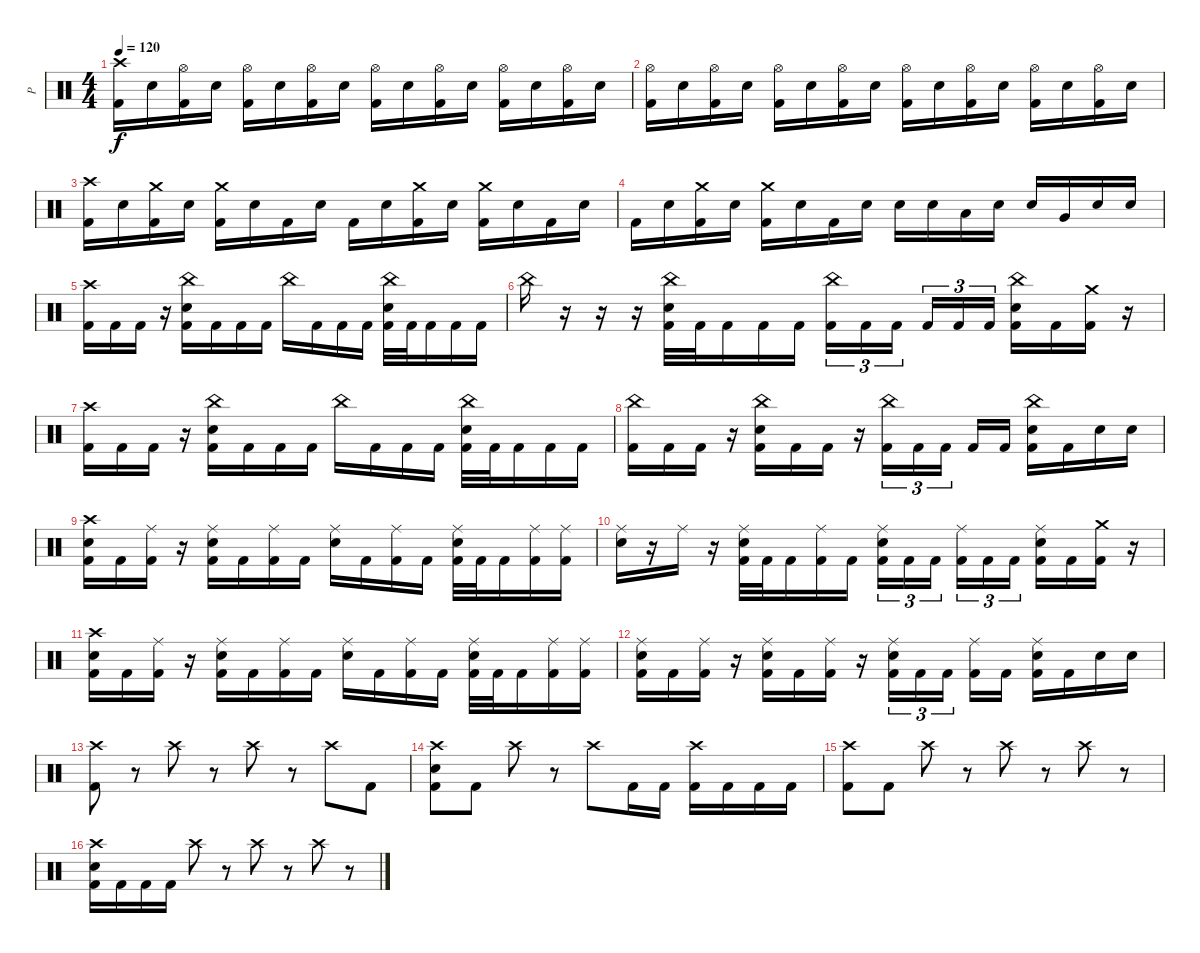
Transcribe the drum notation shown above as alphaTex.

\track ("P" "P") {instrument percussion}
\staff {score}
\articulation defaults
\ts (4 4)
\tempo 120
\clef neutral
\ks c
("Crash high (hit)" "Kick (hit) 2").16{dy f} "Electric Snare (hit)".16 ("Hi-Hat (open)" "Kick (hit) 2").16 "Electric Snare (hit)".16 ("Hi-Hat (open)" "Kick (hit) 2").16 "Electric Snare (hit)".16 ("Hi-Hat (open)" "Kick (hit) 2").16 "Electric Snare (hit)".16 ("Hi-Hat (open)" "Kick (hit) 2").16 "Electric Snare (hit)".16 ("Hi-Hat (open)" "Kick (hit) 2").16 "Electric Snare (hit)".16 ("Hi-Hat (open)" "Kick (hit) 2").16 "Electric Snare (hit)".16 ("Hi-Hat (open)" "Kick (hit) 2").16 "Electric Snare (hit)".16 |
("Hi-Hat (open)" "Kick (hit) 2").16 "Electric Snare (hit)".16 ("Hi-Hat (open)" "Kick (hit) 2").16 "Electric Snare (hit)".16 ("Hi-Hat (open)" "Kick (hit) 2").16 "Electric Snare (hit)".16 ("Hi-Hat (open)" "Kick (hit) 2").16 "Electric Snare (hit)".16 ("Hi-Hat (open)" "Kick (hit) 2").16 "Electric Snare (hit)".16 ("Hi-Hat (open)" "Kick (hit) 2").16 "Electric Snare (hit)".16 ("Hi-Hat (open)" "Kick (hit) 2").16 "Electric Snare (hit)".16 ("Hi-Hat (open)" "Kick (hit) 2").16 "Electric Snare (hit)".16 |
("Crash high (hit)" "Kick (hit) 2").16 "Electric Snare (hit)".16 ("Crash medium (hit)" "Kick (hit) 2").16 "Electric Snare (hit)".16 ("Crash medium (hit)" "Kick (hit) 2").16 "Electric Snare (hit)".16 "Kick (hit) 2".16 "Electric Snare (hit)".16 "Kick (hit) 2".16 "Electric Snare (hit)".16 ("Crash medium (hit)" "Kick (hit) 2").16 "Electric Snare (hit)".16 ("Crash medium (hit)" "Kick (hit) 2").16 "Electric Snare (hit)".16 "Kick (hit) 2".16 "Electric Snare (hit)".16 |
"Kick (hit) 2".16 "Electric Snare (hit)".16 ("Crash medium (hit)" "Kick (hit) 2").16 "Electric Snare (hit)".16 ("Crash medium (hit)" "Kick (hit) 2").16 "Electric Snare (hit)".16 "Kick (hit) 2".16 "Electric Snare (hit)".16 "Electric Snare (hit)".16 "Electric Snare (hit)".16 "Low Tom (hit)".16 "Electric Snare (hit)".16 "Electric Snare (hit)".16 "Very Low Tom (hit)".16 "Electric Snare (hit)".16 "Electric Snare (hit)".16 |
("Crash high (hit)" "Kick (hit) 2").16 "Kick (hit) 2".16 "Kick (hit) 2".16 r.16 ("China (hit)" "Electric Snare (hit)" "Kick (hit) 2").16 "Kick (hit) 2".16 "Kick (hit) 2".16 "Kick (hit) 2".16 "China (hit)".16 "Kick (hit) 2".16 "Kick (hit) 2".16 "Kick (hit) 2".16 ("China (hit)" "Electric Snare (hit)" "Kick (hit) 2").32 "Kick (hit) 2".32 "Kick (hit) 2".16 "Kick (hit) 2".16 "Kick (hit) 2".16 |
"China (hit)".16 r.16 r.16 r.16 ("China (hit)" "Electric Snare (hit)" "Kick (hit) 2").32 "Kick (hit) 2".32 "Kick (hit) 2".16 "Kick (hit) 2".16 "Kick (hit) 2".16 ("China (hit)" "Kick (hit) 2").16{tu (3 2)} "Kick (hit) 2".16{tu (3 2)} "Kick (hit) 2".16{tu (3 2) beam splitsecondary} "Kick (hit) 2".16{tu (3 2)} "Kick (hit) 2".16{tu (3 2)} "Kick (hit) 2".16{tu (3 2)} ("China (hit)" "Electric Snare (hit)" "Kick (hit) 2").16 "Kick (hit) 2".16 ("Crash medium (hit)" "Kick (hit) 2").16 r.16 |
("Crash high (hit)" "Kick (hit) 2").16 "Kick (hit) 2".16 "Kick (hit) 2".16 r.16 ("China (hit)" "Electric Snare (hit)" "Kick (hit) 2").16 "Kick (hit) 2".16 "Kick (hit) 2".16 "Kick (hit) 2".16 "China (hit)".16 "Kick (hit) 2".16 "Kick (hit) 2".16 "Kick (hit) 2".16 ("China (hit)" "Electric Snare (hit)" "Kick (hit) 2").32 "Kick (hit) 2".32 "Kick (hit) 2".16 "Kick (hit) 2".16 "Kick (hit) 2".16 |
("China (hit)" "Kick (hit) 2").16 "Kick (hit) 2".16 "Kick (hit) 2".16 r.16 ("China (hit)" "Electric Snare (hit)" "Kick (hit) 2").16 "Kick (hit) 2".16 "Kick (hit) 2".16 r.16 ("China (hit)" "Kick (hit) 2").16{tu (3 2)} "Kick (hit) 2".16{tu (3 2)} "Kick (hit) 2".16{tu (3 2) beam splitsecondary} "Kick (hit) 2".16 "Kick (hit) 2".16 ("China (hit)" "Electric Snare (hit)" "Kick (hit) 2").16 "Kick (hit) 2".16 "Electric Snare (hit)".16 "Electric Snare (hit)".16 |
("Crash high (hit)" "Electric Snare (hit)" "Kick (hit) 2").16 "Kick (hit) 2".16 ("Ride (middle)" "Kick (hit) 2").16 r.16 ("Ride (middle)" "Electric Snare (hit)" "Kick (hit) 2").16 "Kick (hit) 2".16 ("Ride (middle)" "Kick (hit) 2").16 "Kick (hit) 2".16 ("Ride (middle)" "Electric Snare (hit)").16 "Kick (hit) 2".16 ("Ride (middle)" "Kick (hit) 2").16 "Kick (hit) 2".16 ("Ride (middle)" "Electric Snare (hit)" "Kick (hit) 2").32 "Kick (hit) 2".32 "Kick (hit) 2".16 ("Ride (middle)" "Kick (hit) 2").16 ("Ride (middle)" "Kick (hit) 2").16 |
("Ride (middle)" "Electric Snare (hit)").16 r.16 "Ride (middle)".16 r.16 ("Ride (middle)" "Electric Snare (hit)" "Kick (hit) 2").32 "Kick (hit) 2".32 "Kick (hit) 2".16 ("Ride (middle)" "Kick (hit) 2").16 "Kick (hit) 2".16 ("Ride (middle)" "Electric Snare (hit)" "Kick (hit) 2").16{tu (3 2)} "Kick (hit) 2".16{tu (3 2)} "Kick (hit) 2".16{tu (3 2) beam splitsecondary} ("Ride (middle)" "Kick (hit) 2").16{tu (3 2)} "Kick (hit) 2".16{tu (3 2)} "Kick (hit) 2".16{tu (3 2)} ("Ride (middle)" "Electric Snare (hit)" "Kick (hit) 2").16 "Kick (hit) 2".16 ("Crash medium (hit)" "Kick (hit) 2").16 r.16 |
("Crash high (hit)" "Electric Snare (hit)" "Kick (hit) 2").16 "Kick (hit) 2".16 ("Ride (middle)" "Kick (hit) 2").16 r.16 ("Ride (middle)" "Electric Snare (hit)" "Kick (hit) 2").16 "Kick (hit) 2".16 ("Ride (middle)" "Kick (hit) 2").16 "Kick (hit) 2".16 ("Ride (middle)" "Electric Snare (hit)").16 "Kick (hit) 2".16 ("Ride (middle)" "Kick (hit) 2").16 "Kick (hit) 2".16 ("Ride (middle)" "Electric Snare (hit)" "Kick (hit) 2").32 "Kick (hit) 2".32 "Kick (hit) 2".16 ("Ride (middle)" "Kick (hit) 2").16 ("Ride (middle)" "Kick (hit) 2").16 |
("Ride (middle)" "Electric Snare (hit)" "Kick (hit) 2").16 "Kick (hit) 2".16 ("Ride (middle)" "Kick (hit) 2").16 r.16 ("Ride (middle)" "Electric Snare (hit)" "Kick (hit) 2").16 "Kick (hit) 2".16 ("Ride (middle)" "Kick (hit) 2").16 r.16 ("Ride (middle)" "Electric Snare (hit)" "Kick (hit) 2").16{tu (3 2)} "Kick (hit) 2".16{tu (3 2)} "Kick (hit) 2".16{tu (3 2) beam splitsecondary} ("Ride (middle)" "Kick (hit) 2").16 "Kick (hit) 2".16 ("Ride (middle)" "Electric Snare (hit)" "Kick (hit) 2").16 "Kick (hit) 2".16 "Electric Snare (hit)".16 "Electric Snare (hit)".16 |
("Crash high (hit)" "Kick (hit) 2").8 r.8 "Crash high (hit)".8 r.8 "Crash high (hit)".8 r.8 "Crash high (hit)".8 "Kick (hit) 2".8 |
("Crash high (hit)" "Electric Snare (hit)" "Kick (hit) 2").8 "Kick (hit) 2".8 "Crash high (hit)".8 r.8 "Crash high (hit)".8 "Kick (hit) 2".16 "Kick (hit) 2".16 ("Crash high (hit)" "Kick (hit) 2").16 "Kick (hit) 2".16 "Kick (hit) 2".16 "Kick (hit) 2".16 |
("Crash high (hit)" "Kick (hit) 2").8 "Kick (hit) 2".8 "Crash high (hit)".8 r.8 "Crash high (hit)".8 r.8 "Crash high (hit)".8 r.8 |
("Crash high (hit)" "Electric Snare (hit)" "Kick (hit) 2").16 "Kick (hit) 2".16 "Kick (hit) 2".16 "Kick (hit) 2".16 "Crash high (hit)".8 r.8 "Crash high (hit)".8 r.8 "Crash high (hit)".8 r.8
